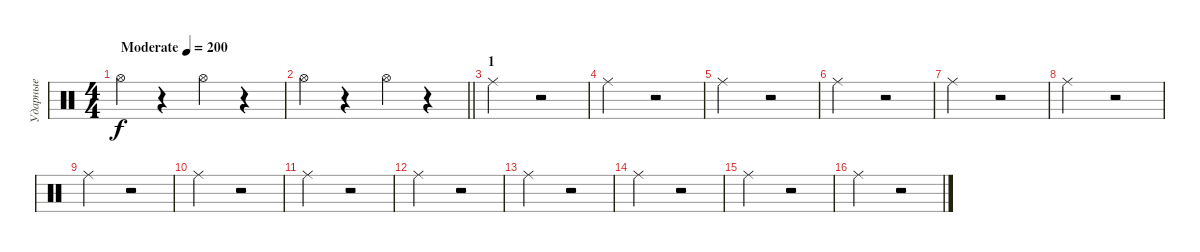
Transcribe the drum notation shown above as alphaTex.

\track ("Ударные" "Ударные") {instrument percussion}
\staff {score}
\articulation defaults
\ts (4 4)
\tempo (200 "Moderate")
\clef neutral
\ks c "Hi-Hat (open)".4{dy f}
r.4 "Hi-Hat (open)".4 r.4 |
\barLineRight lightlight "Hi-Hat (open)".4
r.4 "Hi-Hat (open)".4 r.4 |
\section ("" "1")
"Ride (middle)".2 r.2 |
"Ride (middle)".2 r.2 |
"Ride (middle)".2 r.2 |
"Ride (middle)".2 r.2 |
"Ride (middle)".2 r.2 |
"Ride (middle)".2 r.2 |
"Ride (middle)".2 r.2 |
"Ride (middle)".2 r.2 |
"Ride (middle)".2 r.2 |
"Ride (middle)".2 r.2 |
"Ride (middle)".2 r.2 |
"Ride (middle)".2 r.2 |
"Ride (middle)".2 r.2 |
"Ride (middle)".2 r.2
